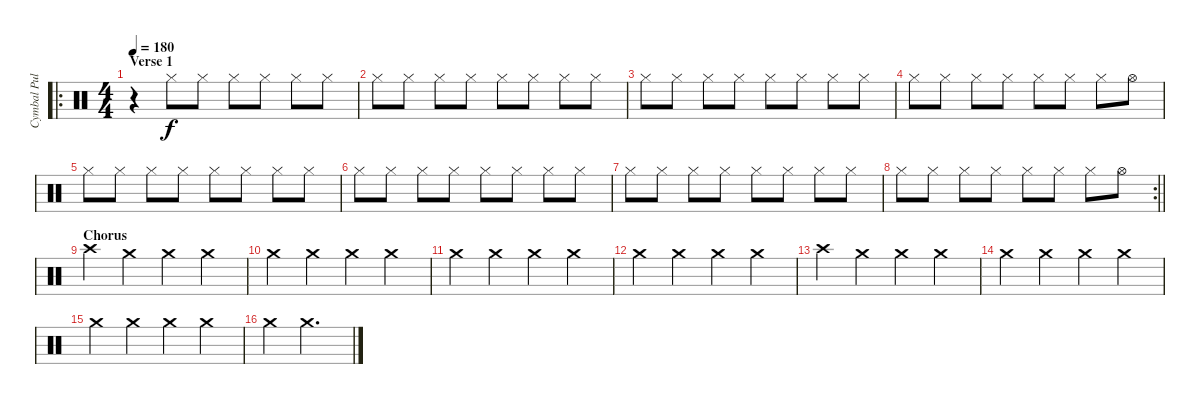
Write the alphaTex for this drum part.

\track ("Cymbal Pulse" "Cymbal Pul") {instrument percussion}
\staff {score}
\articulation defaults
\ro
\ts (4 4)
\section ("" "Verse 1")
\tempo 180
\clef neutral
\ks c
r.4{dy f} "Hi-Hat (closed)".8 "Hi-Hat (closed)".8 "Hi-Hat (closed)".8 "Hi-Hat (closed)".8 "Hi-Hat (closed)".8 "Hi-Hat (closed)".8 |
"Hi-Hat (closed)".8 "Hi-Hat (closed)".8 "Hi-Hat (closed)".8 "Hi-Hat (closed)".8 "Hi-Hat (closed)".8 "Hi-Hat (closed)".8 "Hi-Hat (closed)".8 "Hi-Hat (closed)".8 |
"Hi-Hat (closed)".8 "Hi-Hat (closed)".8 "Hi-Hat (closed)".8 "Hi-Hat (closed)".8 "Hi-Hat (closed)".8 "Hi-Hat (closed)".8 "Hi-Hat (closed)".8 "Hi-Hat (closed)".8 |
"Hi-Hat (closed)".8 "Hi-Hat (closed)".8 "Hi-Hat (closed)".8 "Hi-Hat (closed)".8 "Hi-Hat (closed)".8 "Hi-Hat (closed)".8 "Hi-Hat (closed)".8 "Hi-Hat (open)".8 |
"Hi-Hat (closed)".8 "Hi-Hat (closed)".8 "Hi-Hat (closed)".8 "Hi-Hat (closed)".8 "Hi-Hat (closed)".8 "Hi-Hat (closed)".8 "Hi-Hat (closed)".8 "Hi-Hat (closed)".8 |
"Hi-Hat (closed)".8 "Hi-Hat (closed)".8 "Hi-Hat (closed)".8 "Hi-Hat (closed)".8 "Hi-Hat (closed)".8 "Hi-Hat (closed)".8 "Hi-Hat (closed)".8 "Hi-Hat (closed)".8 |
"Hi-Hat (closed)".8 "Hi-Hat (closed)".8 "Hi-Hat (closed)".8 "Hi-Hat (closed)".8 "Hi-Hat (closed)".8 "Hi-Hat (closed)".8 "Hi-Hat (closed)".8 "Hi-Hat (closed)".8 |
\rc 2
\barLineRight lightlight "Hi-Hat (closed)".8 "Hi-Hat (closed)".8 "Hi-Hat (closed)".8 "Hi-Hat (closed)".8 "Hi-Hat (closed)".8 "Hi-Hat (closed)".8 "Hi-Hat (closed)".8 "Hi-Hat (open)".8
|
\section ("" "Chorus")
"Crash high (hit)".4 "Crash medium (hit)".4 "Crash medium (hit)".4 "Crash medium (hit)".4 |
"Crash medium (hit)".4 "Crash medium (hit)".4 "Crash medium (hit)".4 "Crash medium (hit)".4 |
"Crash medium (hit)".4 "Crash medium (hit)".4 "Crash medium (hit)".4 "Crash medium (hit)".4 |
"Crash medium (hit)".4 "Crash medium (hit)".4 "Crash medium (hit)".4 "Crash medium (hit)".4 |
"Crash high (hit)".4 "Crash medium (hit)".4 "Crash medium (hit)".4 "Crash medium (hit)".4 |
"Crash medium (hit)".4 "Crash medium (hit)".4 "Crash medium (hit)".4 "Crash medium (hit)".4 |
"Crash medium (hit)".4 "Crash medium (hit)".4 "Crash medium (hit)".4 "Crash medium (hit)".4 |
"Crash medium (hit)".4 "Crash medium (hit)".2{d}
